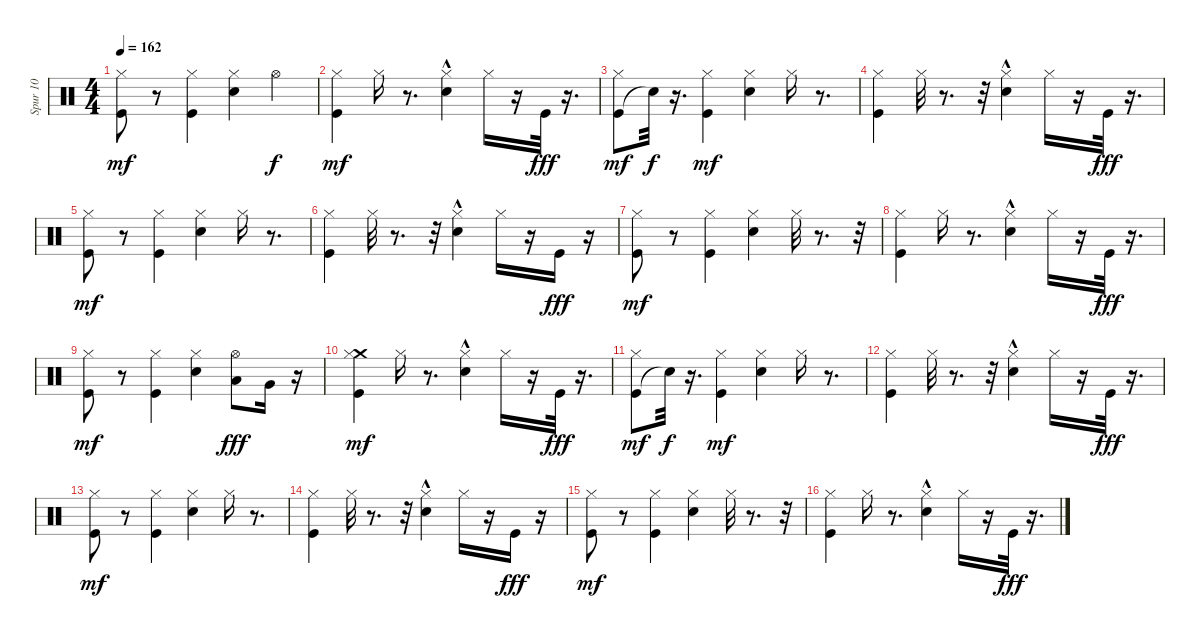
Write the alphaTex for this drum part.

\track ("Spur 10" "Spur 10") {instrument percussion}
\staff {score}
\articulation defaults
\ts (4 4)
\tempo 162
\clef neutral
\ks c
("Kick (hit)" "Hi-Hat (closed)").8{dy mf} r.8 ("Kick (hit)" "Hi-Hat (closed)").4 ("Snare (hit) 2" "Hi-Hat (closed)").4 "Hi-Hat (open)".4{dy f} |
("Kick (hit)" "Hi-Hat (closed)").4{dy mf} "Hi-Hat (closed)".16 r.8{d} ("Snare (hit) 2"{hac} "Hi-Hat (closed)").4 "Hi-Hat (closed)".16 r.16 "Kick (hit)".32{dy fff} r.16{d} |
("Kick (hit)" "Hi-Hat (closed)").8{dy mf} "Snare (hit)"{t}.32{dy f} r.16{d} ("Kick (hit)" "Hi-Hat (closed)").4{dy mf} ("Snare (hit) 2" "Hi-Hat (closed)").4 "Hi-Hat (closed)".16 r.8{d} |
("Kick (hit)" "Hi-Hat (closed)").4 "Hi-Hat (closed)".32 r.8{d} r.32 ("Snare (hit) 2"{hac} "Hi-Hat (closed)").4 "Hi-Hat (closed)".16 r.16 "Kick (hit)".32{dy fff} r.16{d} |
("Kick (hit)" "Hi-Hat (closed)").8{dy mf} r.8 ("Kick (hit)" "Hi-Hat (closed)").4 ("Snare (hit) 2" "Hi-Hat (closed)").4 "Hi-Hat (closed)".16 r.8{d} |
("Kick (hit)" "Hi-Hat (closed)").4 "Hi-Hat (closed)".32 r.8{d} r.32 ("Snare (hit) 2"{hac} "Hi-Hat (closed)").4 "Hi-Hat (closed)".16 r.16 "Kick (hit)".16{dy fff} r.16 |
("Kick (hit)" "Hi-Hat (closed)").8{dy mf} r.8 ("Kick (hit)" "Hi-Hat (closed)").4 ("Snare (hit) 2" "Hi-Hat (closed)").4 "Hi-Hat (closed)".32 r.8{d} r.32 |
("Kick (hit)" "Hi-Hat (closed)").4 "Hi-Hat (closed)".16 r.8{d} ("Snare (hit) 2"{hac} "Hi-Hat (closed)").4 "Hi-Hat (closed)".16 r.16 "Kick (hit)".32{dy fff} r.16{d} |
("Kick (hit)" "Hi-Hat (closed)").8{dy mf} r.8 ("Kick (hit)" "Hi-Hat (closed)").4 ("Snare (hit) 2" "Hi-Hat (closed)").4 ("Low Tom (hit)" "Hi-Hat (open)").8{dy fff} "Very Low Tom (hit)".16 r.16 |
("Kick (hit)" "Crash medium (hit)" "Hi-Hat (closed)").4{dy mf} "Hi-Hat (closed)".16 r.8{d} ("Snare (hit) 2"{hac} "Hi-Hat (closed)").4 "Hi-Hat (closed)".16 r.16 "Kick (hit)".32{dy fff} r.16{d} |
("Kick (hit)" "Hi-Hat (closed)").8{dy mf} "Snare (hit)"{t}.32{dy f} r.16{d} ("Kick (hit)" "Hi-Hat (closed)").4{dy mf} ("Snare (hit) 2" "Hi-Hat (closed)").4 "Hi-Hat (closed)".16 r.8{d} |
("Kick (hit)" "Hi-Hat (closed)").4 "Hi-Hat (closed)".32 r.8{d} r.32 ("Snare (hit) 2"{hac} "Hi-Hat (closed)").4 "Hi-Hat (closed)".16 r.16 "Kick (hit)".32{dy fff} r.16{d} |
("Kick (hit)" "Hi-Hat (closed)").8{dy mf} r.8 ("Kick (hit)" "Hi-Hat (closed)").4 ("Snare (hit) 2" "Hi-Hat (closed)").4 "Hi-Hat (closed)".16 r.8{d} |
("Kick (hit)" "Hi-Hat (closed)").4 "Hi-Hat (closed)".32 r.8{d} r.32 ("Snare (hit) 2"{hac} "Hi-Hat (closed)").4 "Hi-Hat (closed)".16 r.16 "Kick (hit)".16{dy fff} r.16 |
("Kick (hit)" "Hi-Hat (closed)").8{dy mf} r.8 ("Kick (hit)" "Hi-Hat (closed)").4 ("Snare (hit) 2" "Hi-Hat (closed)").4 "Hi-Hat (closed)".32 r.8{d} r.32 |
("Kick (hit)" "Hi-Hat (closed)").4 "Hi-Hat (closed)".16 r.8{d} ("Snare (hit) 2"{hac} "Hi-Hat (closed)").4 "Hi-Hat (closed)".16 r.16 "Kick (hit)".32{dy fff} r.16{d}
